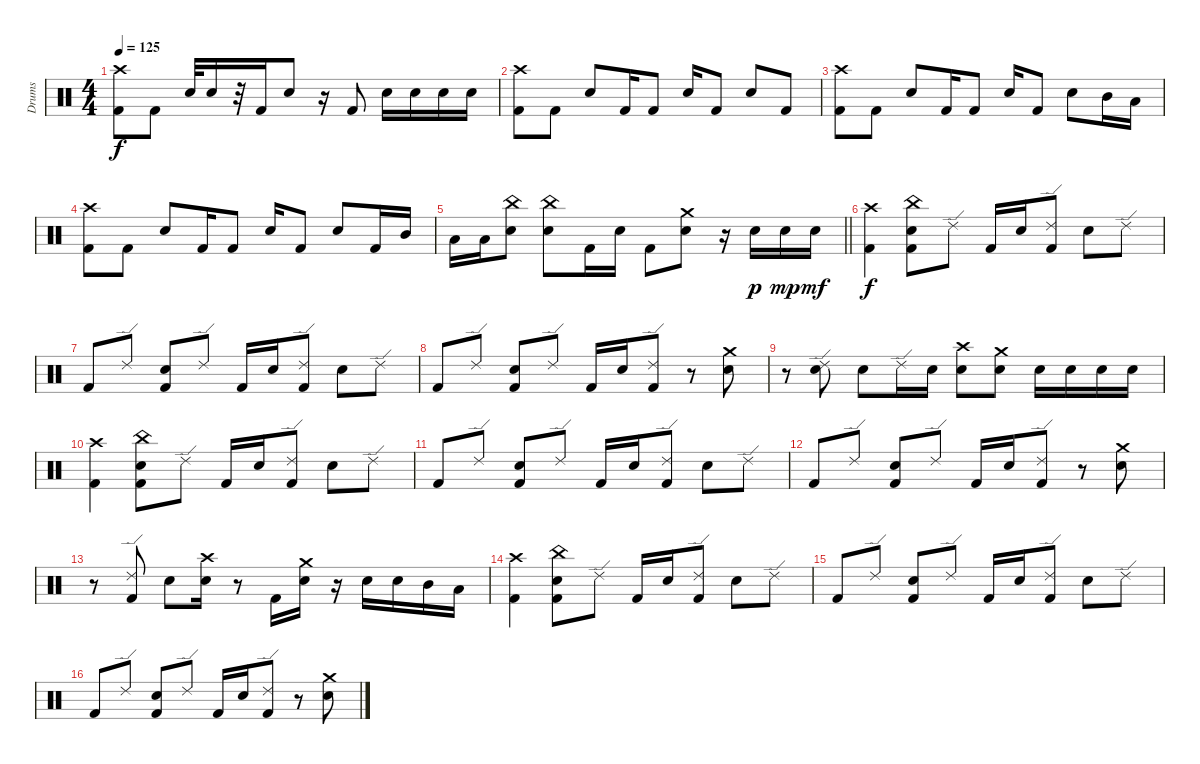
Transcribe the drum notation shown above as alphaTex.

\track ("Drums" "Drums") {instrument percussion}
\staff
\articulation defaults
\ts (4 4)
\tempo 125
\clef neutral
\ks c
("Crash high (hit)" "Kick (hit) 2").8{dy f} "Kick (hit) 2".8 "Electric Snare (hit)".32 "Electric Snare (hit)".16 r.32 "Kick (hit) 2".16 "Electric Snare (hit)".8 r.16 "Kick (hit) 2".8 "Electric Snare (hit)".16 "Electric Snare (hit)".16 "Electric Snare (hit)".16 "Electric Snare (hit)".16 |
("Crash high (hit)" "Kick (hit) 2").8 "Kick (hit) 2".8 "Electric Snare (hit)".8 "Kick (hit) 2".16 "Kick (hit) 2".8 "Electric Snare (hit)".16 "Kick (hit) 2".8 "Electric Snare (hit)".8 "Kick (hit) 2".8 |
("Crash high (hit)" "Kick (hit) 2").8 "Kick (hit) 2".8 "Electric Snare (hit)".8 "Kick (hit) 2".16 "Kick (hit) 2".8 "Electric Snare (hit)".16 "Kick (hit) 2".8 "Electric Snare (hit)".8 "Mid Tom (hit)".16 "Low Tom (hit)".16 |
("Crash high (hit)" "Kick (hit) 2").8 "Kick (hit) 2".8 "Electric Snare (hit)".8 "Kick (hit) 2".16 "Kick (hit) 2".8 "Electric Snare (hit)".16 "Kick (hit) 2".8 "Electric Snare (hit)".8 "Kick (hit) 2".16 "Mid Tom (hit)".16 |
\barLineRight lightlight "Low Tom (hit)".16 "Low Tom (hit)".16
("China (hit)" "Electric Snare (hit)").8 ("China (hit)" "Electric Snare (hit)").8 "Kick (hit) 2".16 "Electric Snare (hit)".16 "Kick (hit) 2".8 ("Crash medium (hit)" "Electric Snare (hit)").8 r.16 "Electric Snare (hit)".16{dy p} "Electric Snare (hit)".16{dy mp} "Electric Snare (hit)".16{dy mf} |
("Crash high (hit)" "Kick (hit) 2").4{dy f} ("China (hit)" "Electric Snare (hit)" "Kick (hit) 2").8 "Ride (edge) 2".8 "Kick (hit) 2".16 "Electric Snare (hit)".16 ("Ride (edge) 2" "Kick (hit) 2").8 "Electric Snare (hit)".8 "Ride (edge) 2".8 |
"Kick (hit) 2".8 "Ride (edge) 2".8 ("Electric Snare (hit)" "Kick (hit) 2").8 "Ride (edge) 2".8 "Kick (hit) 2".16 "Electric Snare (hit)".16 ("Ride (edge) 2" "Kick (hit) 2").8 "Electric Snare (hit)".8 "Ride (edge) 2".8 |
"Kick (hit) 2".8 "Ride (edge) 2".8 ("Electric Snare (hit)" "Kick (hit) 2").8 "Ride (edge) 2".8 "Kick (hit) 2".16 "Electric Snare (hit)".16 ("Ride (edge) 2" "Kick (hit) 2").8 r.8 ("Crash medium (hit)" "Electric Snare (hit)").8 |
r.8 ("Ride (edge) 2" "Electric Snare (hit)").8 "Electric Snare (hit)".8 "Ride (edge) 2".16 "Electric Snare (hit)".16 ("Crash high (hit)" "Electric Snare (hit)").8 ("Crash medium (hit)" "Electric Snare (hit)").8 "Electric Snare (hit)".16 "Electric Snare (hit)".16 "Electric Snare (hit)".16 "Electric Snare (hit)".16 |
("Crash high (hit)" "Kick (hit) 2").4 ("China (hit)" "Electric Snare (hit)" "Kick (hit) 2").8 "Ride (edge) 2".8 "Kick (hit) 2".16 "Electric Snare (hit)".16 ("Ride (edge) 2" "Kick (hit) 2").8 "Electric Snare (hit)".8 "Ride (edge) 2".8 |
"Kick (hit) 2".8 "Ride (edge) 2".8 ("Electric Snare (hit)" "Kick (hit) 2").8 "Ride (edge) 2".8 "Kick (hit) 2".16 "Electric Snare (hit)".16 ("Ride (edge) 2" "Kick (hit) 2").8 "Electric Snare (hit)".8 "Ride (edge) 2".8 |
"Kick (hit) 2".8 "Ride (edge) 2".8 ("Electric Snare (hit)" "Kick (hit) 2").8 "Ride (edge) 2".8 "Kick (hit) 2".16 "Electric Snare (hit)".16 ("Ride (edge) 2" "Kick (hit) 2").8 r.8 ("Crash medium (hit)" "Electric Snare (hit)").8 |
r.8 ("Ride (edge) 2" "Kick (hit) 2").8 "Electric Snare (hit)".8 ("Crash high (hit)" "Electric Snare (hit)").16 r.8 "Kick (hit) 2".16 ("Crash medium (hit)" "Electric Snare (hit)").16 r.16 "Electric Snare (hit)".16 "Electric Snare (hit)".16 "Mid Tom (hit)".16 "Low Tom (hit)".16 |
("Crash high (hit)" "Kick (hit) 2").4 ("China (hit)" "Electric Snare (hit)" "Kick (hit) 2").8 "Ride (edge) 2".8 "Kick (hit) 2".16 "Electric Snare (hit)".16 ("Ride (edge) 2" "Kick (hit) 2").8 "Electric Snare (hit)".8 "Ride (edge) 2".8 |
"Kick (hit) 2".8 "Ride (edge) 2".8 ("Electric Snare (hit)" "Kick (hit) 2").8 "Ride (edge) 2".8 "Kick (hit) 2".16 "Electric Snare (hit)".16 ("Ride (edge) 2" "Kick (hit) 2").8 "Electric Snare (hit)".8 "Ride (edge) 2".8 |
"Kick (hit) 2".8 "Ride (edge) 2".8 ("Electric Snare (hit)" "Kick (hit) 2").8 "Ride (edge) 2".8 "Kick (hit) 2".16 "Electric Snare (hit)".16 ("Ride (edge) 2" "Kick (hit) 2").8 r.8 ("Crash medium (hit)" "Electric Snare (hit)").8
